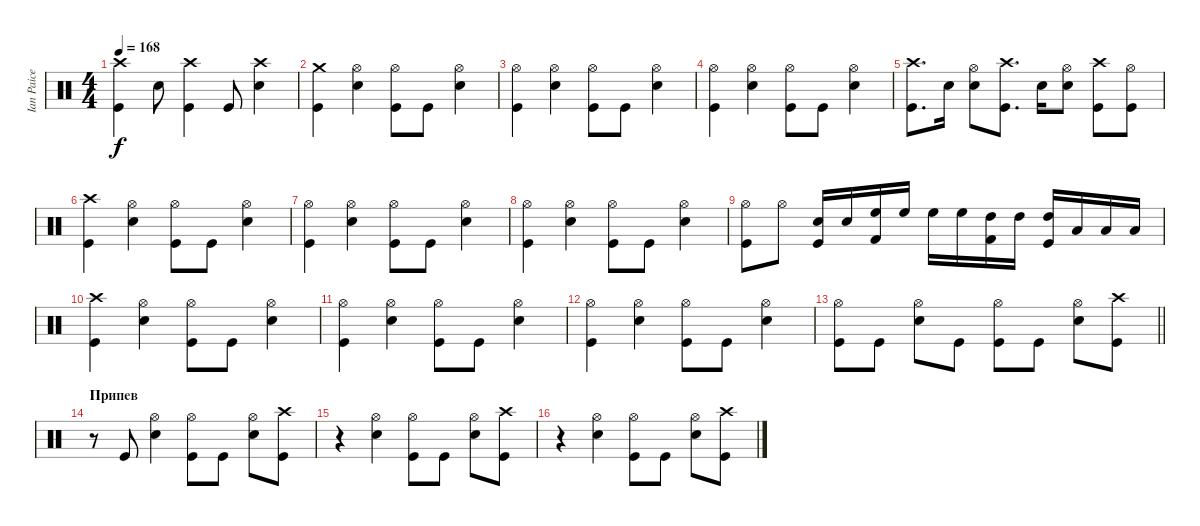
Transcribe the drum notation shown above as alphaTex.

\track ("Ian Paice" "Ian Paice") {instrument percussion}
\staff {score}
\articulation defaults
\ts (4 4)
\tempo 168
\clef neutral
\ks c
("Kick (hit)" "Crash high (hit)").4{dy f} "Snare (hit) 2".8 ("Kick (hit)" "Crash high (hit)").4 "Kick (hit)".8 ("Snare (hit) 2" "Crash high (hit)").4 |
("Kick (hit)" "Crash medium (hit)").4 ("Hi-Hat (open)" "Snare (hit) 2").4 ("Hi-Hat (open)" "Kick (hit)").8 "Kick (hit)".8 ("Hi-Hat (open)" "Snare (hit) 2").4 |
("Kick (hit)" "Hi-Hat (open)").4 ("Snare (hit) 2" "Hi-Hat (open)").4 ("Kick (hit)" "Hi-Hat (open)").8 "Kick (hit)".8 ("Hi-Hat (open)" "Snare (hit) 2").4 |
("Kick (hit)" "Hi-Hat (open)").4 ("Hi-Hat (open)" "Snare (hit) 2").4 ("Hi-Hat (open)" "Kick (hit)").8 "Kick (hit)".8 ("Hi-Hat (open)" "Snare (hit) 2").4 |
("Crash high (hit)" "Kick (hit)").8{d} "Snare (hit) 2".16 ("Hi-Hat (open)" "Snare (hit) 2").8 ("Crash high (hit)" "Kick (hit)").8{d} "Snare (hit) 2".16 ("Hi-Hat (open)" "Snare (hit) 2").8 ("Crash high (hit)" "Kick (hit)").8 ("Hi-Hat (open)" "Kick (hit)").8 |
("Crash high (hit)" "Kick (hit)").4 ("Snare (hit) 2" "Hi-Hat (open)").4 ("Hi-Hat (open)" "Kick (hit)").8 "Kick (hit)".8 ("Hi-Hat (open)" "Snare (hit) 2").4 |
("Kick (hit)" "Hi-Hat (open)").4 ("Hi-Hat (open)" "Snare (hit) 2").4 ("Hi-Hat (open)" "Kick (hit)").8 "Kick (hit)".8 ("Hi-Hat (open)" "Snare (hit) 2").4 |
("Hi-Hat (open)" "Kick (hit)").4 ("Hi-Hat (open)" "Snare (hit) 2").4 ("Kick (hit)" "Hi-Hat (open)").8 "Kick (hit)".8 ("Snare (hit) 2" "Hi-Hat (open)").4 |
("Hi-Hat (open)" "Kick (hit)").8 "Hi-Hat (open)".8 ("Electric Snare (hit)" "Kick (hit)").16 "Electric Snare (hit)".16 ("High Floor Tom (hit)" "Kick (hit) 2").16 "High Floor Tom (hit)".16 "High Floor Tom (hit)".16 "High Floor Tom (hit)".16 ("High Tom (hit)" "Kick (hit) 2").16 "High Tom (hit)".16 ("Kick (hit)" "High Tom (hit)").16 "Low Tom (hit)".16 "Low Tom (hit)".16 "Low Floor Tom (hit)".16 |
("Crash high (hit)" "Kick (hit)").4 ("Snare (hit) 2" "Hi-Hat (open)").4 ("Hi-Hat (open)" "Kick (hit)").8 "Kick (hit)".8 ("Snare (hit) 2" "Hi-Hat (open)").4 |
("Kick (hit)" "Hi-Hat (open)").4 ("Snare (hit) 2" "Hi-Hat (open)").4 ("Hi-Hat (open)" "Kick (hit)").8 "Kick (hit)".8 ("Hi-Hat (open)" "Snare (hit) 2").4 |
("Kick (hit)" "Hi-Hat (open)").4 ("Snare (hit) 2" "Hi-Hat (open)").4 ("Hi-Hat (open)" "Kick (hit)").8 "Kick (hit)".8 ("Hi-Hat (open)" "Snare (hit) 2").4 |
\barLineRight lightlight
("Kick (hit)" "Hi-Hat (open)").8 "Kick (hit)".8 ("Snare (hit) 2" "Hi-Hat (open)").8 "Kick (hit)".8 ("Hi-Hat (open)" "Kick (hit)").8 "Kick (hit)".8 ("Snare (hit) 2" "Hi-Hat (open)").8 ("Crash high (hit)" "Kick (hit)").8 |
\section ("" "Припев")
r.8 "Kick (hit)".8 ("Hi-Hat (open)" "Snare (hit) 2").4 ("Hi-Hat (open)" "Kick (hit)").8 "Kick (hit)".8 ("Hi-Hat (open)" "Snare (hit) 2").8 ("Kick (hit)" "Crash high (hit)").8 |
r.4 ("Hi-Hat (open)" "Snare (hit) 2").4 ("Hi-Hat (open)" "Kick (hit)").8 "Kick (hit)".8 ("Hi-Hat (open)" "Snare (hit) 2").8 ("Kick (hit)" "Crash high (hit)").8 |
r.4 ("Hi-Hat (open)" "Snare (hit) 2").4 ("Hi-Hat (open)" "Kick (hit)").8 "Kick (hit)".8 ("Hi-Hat (open)" "Snare (hit) 2").8 ("Kick (hit)" "Crash high (hit)").8
